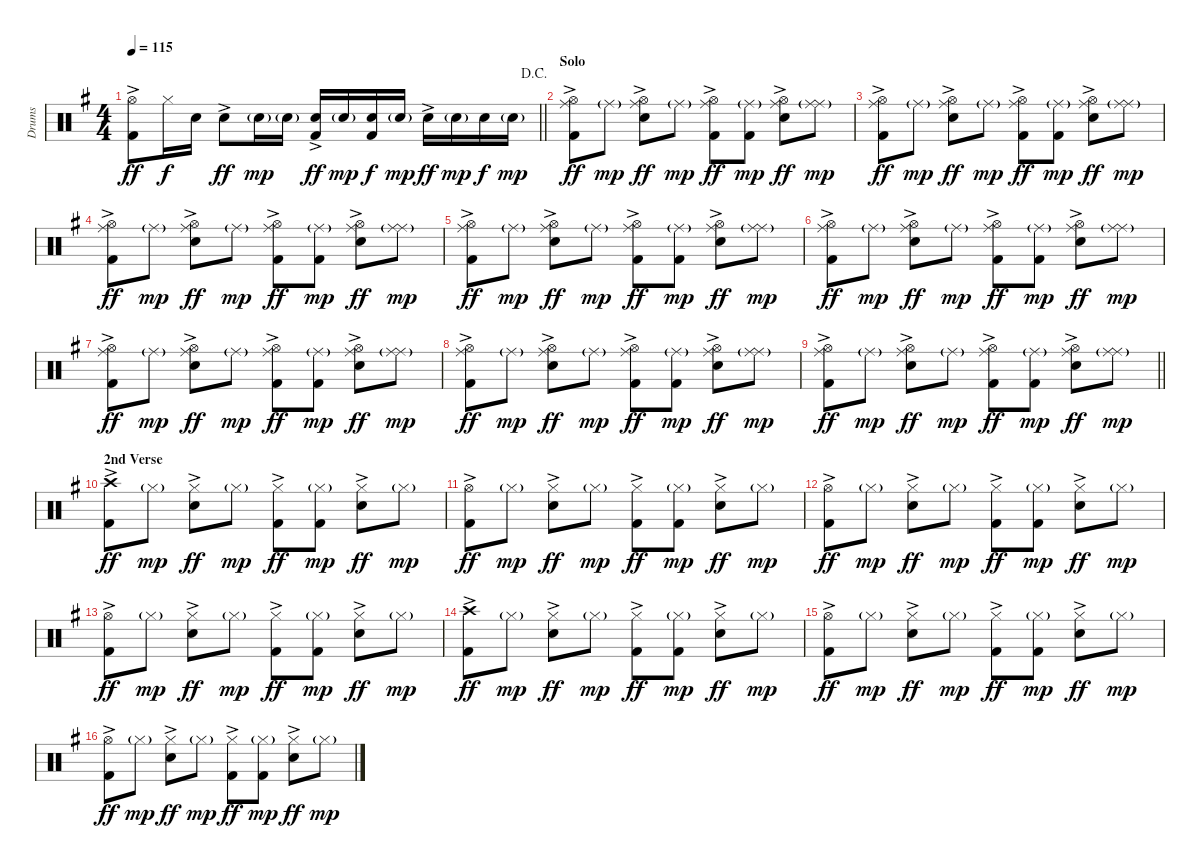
\track ("Drums" "Drums") {instrument percussion}
\staff {score}
\articulation defaults
\ts (4 4)
\jump dacapo
\tempo 115
\clef neutral
\barLineRight lightlight
\ks g
("Hi-Hat (open)" "Kick (hit) 2"{ac}).8{dy ff} "Hi-Hat (closed)".16{dy f} "Snare (hit) 2".16 "Snare (hit) 2"{ac}.8{dy ff} "Snare (hit) 2"{g}.16{dy mp} "Snare (hit) 2"{g}.16 ("Snare (hit) 2" "Kick (hit) 2"{ac}).16{dy ff} "Snare (hit) 2"{g}.16{dy mp} ("Snare (hit) 2" "Kick (hit) 2").16{dy f} "Snare (hit) 2"{g}.16{dy mp} "Snare (hit) 2"{ac}.16{dy ff} "Snare (hit) 2"{g}.16{dy mp} "Snare (hit) 2".16{dy f} "Snare (hit) 2"{g}.16{dy mp} |
\section ("" "Solo")
("Ride (middle)" "Hi-Hat (open)" "Kick (hit) 2"{ac}).8{dy ff} "Ride (middle)"{g}.8{dy mp} ("Ride (middle)" "Hi-Hat (open)" "Snare (hit) 2"{ac}).8{dy ff} "Ride (middle)"{g}.8{dy mp} ("Ride (middle)" "Hi-Hat (open)" "Kick (hit) 2"{ac}).8{dy ff} ("Ride (middle)"{g} "Kick (hit) 2").8{dy mp} ("Ride (middle)" "Hi-Hat (open)" "Snare (hit) 2"{ac}).8{dy ff} ("Ride (middle)"{g} "Ride (middle)").8{dy mp} |
("Ride (middle)" "Hi-Hat (open)" "Kick (hit) 2"{ac}).8{dy ff} "Ride (middle)"{g}.8{dy mp} ("Ride (middle)" "Hi-Hat (open)" "Snare (hit) 2"{ac}).8{dy ff} "Ride (middle)"{g}.8{dy mp} ("Ride (middle)" "Hi-Hat (open)" "Kick (hit) 2"{ac}).8{dy ff} ("Ride (middle)"{g} "Kick (hit) 2").8{dy mp} ("Ride (middle)" "Hi-Hat (open)" "Snare (hit) 2"{ac}).8{dy ff} ("Ride (middle)"{g} "Ride (middle)").8{dy mp} |
("Ride (middle)" "Hi-Hat (open)" "Kick (hit) 2"{ac}).8{dy ff} "Ride (middle)"{g}.8{dy mp} ("Ride (middle)" "Hi-Hat (open)" "Snare (hit) 2"{ac}).8{dy ff} "Ride (middle)"{g}.8{dy mp} ("Ride (middle)" "Hi-Hat (open)" "Kick (hit) 2"{ac}).8{dy ff} ("Ride (middle)"{g} "Kick (hit) 2").8{dy mp} ("Ride (middle)" "Hi-Hat (open)" "Snare (hit) 2"{ac}).8{dy ff} ("Ride (middle)"{g} "Ride (middle)").8{dy mp} |
("Ride (middle)" "Hi-Hat (open)" "Kick (hit) 2"{ac}).8{dy ff} "Ride (middle)"{g}.8{dy mp} ("Ride (middle)" "Hi-Hat (open)" "Snare (hit) 2"{ac}).8{dy ff} "Ride (middle)"{g}.8{dy mp} ("Ride (middle)" "Hi-Hat (open)" "Kick (hit) 2"{ac}).8{dy ff} ("Ride (middle)"{g} "Kick (hit) 2").8{dy mp} ("Ride (middle)" "Hi-Hat (open)" "Snare (hit) 2"{ac}).8{dy ff} ("Ride (middle)"{g} "Ride (middle)").8{dy mp} |
("Ride (middle)" "Hi-Hat (open)" "Kick (hit) 2"{ac}).8{dy ff} "Ride (middle)"{g}.8{dy mp} ("Ride (middle)" "Hi-Hat (open)" "Snare (hit) 2"{ac}).8{dy ff} "Ride (middle)"{g}.8{dy mp} ("Ride (middle)" "Hi-Hat (open)" "Kick (hit) 2"{ac}).8{dy ff} ("Ride (middle)"{g} "Kick (hit) 2").8{dy mp} ("Ride (middle)" "Hi-Hat (open)" "Snare (hit) 2"{ac}).8{dy ff} ("Ride (middle)"{g} "Ride (middle)").8{dy mp} |
("Ride (middle)" "Hi-Hat (open)" "Kick (hit) 2"{ac}).8{dy ff} "Ride (middle)"{g}.8{dy mp} ("Ride (middle)" "Hi-Hat (open)" "Snare (hit) 2"{ac}).8{dy ff} "Ride (middle)"{g}.8{dy mp} ("Ride (middle)" "Hi-Hat (open)" "Kick (hit) 2"{ac}).8{dy ff} ("Ride (middle)"{g} "Kick (hit) 2").8{dy mp} ("Ride (middle)" "Hi-Hat (open)" "Snare (hit) 2"{ac}).8{dy ff} ("Ride (middle)"{g} "Ride (middle)").8{dy mp} |
("Ride (middle)" "Hi-Hat (open)" "Kick (hit) 2"{ac}).8{dy ff} "Ride (middle)"{g}.8{dy mp} ("Ride (middle)" "Hi-Hat (open)" "Snare (hit) 2"{ac}).8{dy ff} "Ride (middle)"{g}.8{dy mp} ("Ride (middle)" "Hi-Hat (open)" "Kick (hit) 2"{ac}).8{dy ff} ("Ride (middle)"{g} "Kick (hit) 2").8{dy mp} ("Ride (middle)" "Hi-Hat (open)" "Snare (hit) 2"{ac}).8{dy ff} ("Ride (middle)"{g} "Ride (middle)").8{dy mp} |
\barLineRight lightlight
("Ride (middle)" "Hi-Hat (open)" "Kick (hit) 2"{ac}).8{dy ff} "Ride (middle)"{g}.8{dy mp} ("Ride (middle)" "Hi-Hat (open)" "Snare (hit) 2"{ac}).8{dy ff} "Ride (middle)"{g}.8{dy mp} ("Ride (middle)" "Hi-Hat (open)" "Kick (hit) 2"{ac}).8{dy ff} ("Ride (middle)"{g} "Kick (hit) 2").8{dy mp} ("Ride (middle)" "Hi-Hat (open)" "Snare (hit) 2"{ac}).8{dy ff} ("Ride (middle)"{g} "Ride (middle)").8{dy mp} |
\section ("" "2nd Verse")
("Crash high (hit)" "Kick (hit) 2"{ac}).8{dy ff} "Hi-Hat (closed)"{g}.8{dy mp} ("Hi-Hat (closed)" "Snare (hit) 2"{ac}).8{dy ff} "Hi-Hat (closed)"{g}.8{dy mp} ("Hi-Hat (closed)" "Kick (hit) 2"{ac}).8{dy ff} ("Hi-Hat (closed)"{g} "Kick (hit) 2").8{dy mp} ("Hi-Hat (closed)" "Snare (hit) 2"{ac}).8{dy ff} "Hi-Hat (closed)"{g}.8{dy mp} |
("Hi-Hat (open)" "Kick (hit) 2"{ac}).8{dy ff} "Hi-Hat (closed)"{g}.8{dy mp} ("Hi-Hat (closed)" "Snare (hit) 2"{ac}).8{dy ff} "Hi-Hat (closed)"{g}.8{dy mp} ("Hi-Hat (closed)" "Kick (hit) 2"{ac}).8{dy ff} ("Hi-Hat (closed)"{g} "Kick (hit) 2").8{dy mp} ("Hi-Hat (closed)" "Snare (hit) 2"{ac}).8{dy ff} "Hi-Hat (closed)"{g}.8{dy mp} |
("Hi-Hat (open)" "Kick (hit) 2"{ac}).8{dy ff} "Hi-Hat (closed)"{g}.8{dy mp} ("Hi-Hat (closed)" "Snare (hit) 2"{ac}).8{dy ff} "Hi-Hat (closed)"{g}.8{dy mp} ("Hi-Hat (closed)" "Kick (hit) 2"{ac}).8{dy ff} ("Hi-Hat (closed)"{g} "Kick (hit) 2").8{dy mp} ("Hi-Hat (closed)" "Snare (hit) 2"{ac}).8{dy ff} "Hi-Hat (closed)"{g}.8{dy mp} |
("Hi-Hat (open)" "Kick (hit) 2"{ac}).8{dy ff} "Hi-Hat (closed)"{g}.8{dy mp} ("Hi-Hat (closed)" "Snare (hit) 2"{ac}).8{dy ff} "Hi-Hat (closed)"{g}.8{dy mp} ("Hi-Hat (closed)" "Kick (hit) 2"{ac}).8{dy ff} ("Hi-Hat (closed)"{g} "Kick (hit) 2").8{dy mp} ("Hi-Hat (closed)" "Snare (hit) 2"{ac}).8{dy ff} "Hi-Hat (closed)"{g}.8{dy mp} |
("Crash high (hit)" "Kick (hit) 2"{ac}).8{dy ff} "Hi-Hat (closed)"{g}.8{dy mp} ("Hi-Hat (closed)" "Snare (hit) 2"{ac}).8{dy ff} "Hi-Hat (closed)"{g}.8{dy mp} ("Hi-Hat (closed)" "Kick (hit) 2"{ac}).8{dy ff} ("Hi-Hat (closed)"{g} "Kick (hit) 2").8{dy mp} ("Hi-Hat (closed)" "Snare (hit) 2"{ac}).8{dy ff} "Hi-Hat (closed)"{g}.8{dy mp} |
("Hi-Hat (open)" "Kick (hit) 2"{ac}).8{dy ff} "Hi-Hat (closed)"{g}.8{dy mp} ("Hi-Hat (closed)" "Snare (hit) 2"{ac}).8{dy ff} "Hi-Hat (closed)"{g}.8{dy mp} ("Hi-Hat (closed)" "Kick (hit) 2"{ac}).8{dy ff} ("Hi-Hat (closed)"{g} "Kick (hit) 2").8{dy mp} ("Hi-Hat (closed)" "Snare (hit) 2"{ac}).8{dy ff} "Hi-Hat (closed)"{g}.8{dy mp} |
("Hi-Hat (open)" "Kick (hit) 2"{ac}).8{dy ff} "Hi-Hat (closed)"{g}.8{dy mp} ("Hi-Hat (closed)" "Snare (hit) 2"{ac}).8{dy ff} "Hi-Hat (closed)"{g}.8{dy mp} ("Hi-Hat (closed)" "Kick (hit) 2"{ac}).8{dy ff} ("Hi-Hat (closed)"{g} "Kick (hit) 2").8{dy mp} ("Hi-Hat (closed)" "Snare (hit) 2"{ac}).8{dy ff} "Hi-Hat (closed)"{g}.8{dy mp}
